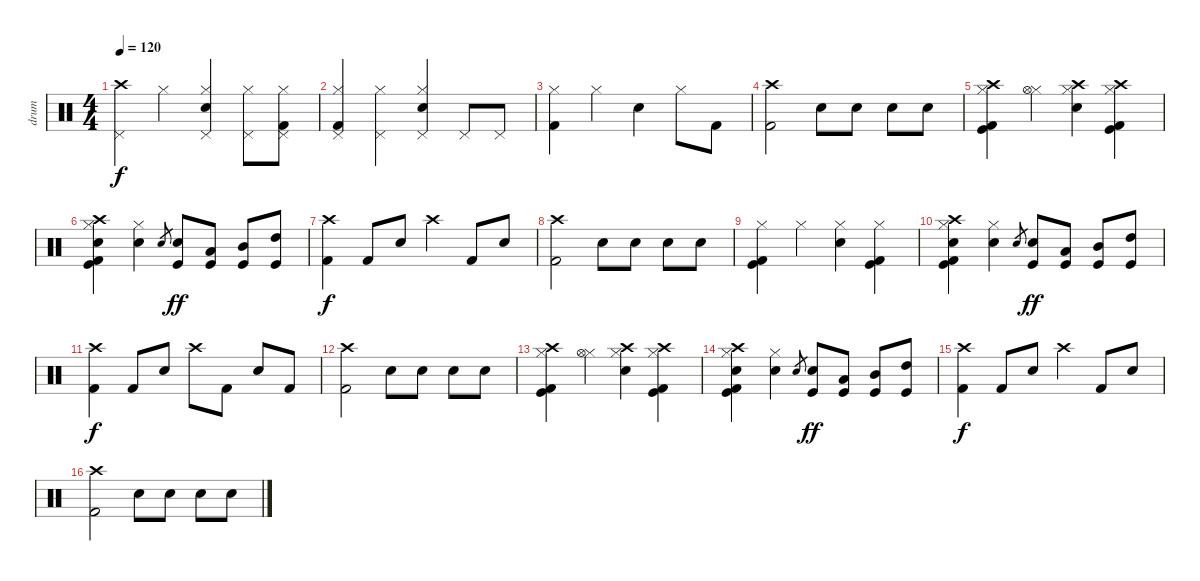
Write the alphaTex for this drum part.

\track ("drum" "drum") {instrument percussion}
\staff {score}
\articulation defaults
\ts (4 4)
\tempo 120
\clef neutral
\ks c
("Crash high (hit)" "Pedal Hi-Hat (hit)").4{dy f} "Hi-Hat (closed)".4 ("Snare (hit) 2" "Pedal Hi-Hat (hit)" "Hi-Hat (closed)").4 ("Hi-Hat (closed)" "Pedal Hi-Hat (hit)").8 ("Kick (hit) 2" "Pedal Hi-Hat (hit)" "Hi-Hat (closed)").8 |
("Kick (hit) 2" "Pedal Hi-Hat (hit)" "Hi-Hat (closed)").4 ("Hi-Hat (closed)" "Pedal Hi-Hat (hit)").4 ("Snare (hit) 2" "Pedal Hi-Hat (hit)" "Hi-Hat (closed)").4 "Pedal Hi-Hat (hit)".8 "Pedal Hi-Hat (hit)".8 |
("Hi-Hat (closed)" "Kick (hit) 2").4 "Hi-Hat (closed)".4 "Snare (hit) 2".4 "Hi-Hat (closed)".8 "Kick (hit) 2".8 |
("Crash high (hit)" "Kick (hit) 2").2 "Electric Snare (hit)".8 "Electric Snare (hit)".8 "Electric Snare (hit)".8 "Electric Snare (hit)".8 |
("Hi-Hat (closed)" "Crash high (hit)" "Kick (hit) 2" "Kick (hit)").4 ("Hi-Hat (closed)" "Hi-Hat (open)").4 ("Hi-Hat (closed)" "Crash high (hit)" "Electric Snare (hit)").4 ("Hi-Hat (closed)" "Crash high (hit)" "Kick (hit) 2" "Kick (hit)").4 |
("Hi-Hat (closed)" "Crash high (hit)" "Electric Snare (hit)" "Kick (hit) 2" "Kick (hit)").4 ("Hi-Hat (closed)" "Electric Snare (hit)").4 "Electric Snare (hit)".8{gr} ("Electric Snare (hit)" "Kick (hit)").8{dy ff} ("Low Tom (hit)" "Kick (hit)").8 ("Mid Tom (hit)" "Kick (hit)").8 ("High Tom (hit)" "Kick (hit)").8 |
("Crash high (hit)" "Kick (hit) 2").4{dy f} "Kick (hit) 2".8 "Snare (hit) 2".8 "Crash high (hit)".4 "Kick (hit) 2".8 "Snare (hit) 2".8 |
("Crash high (hit)" "Kick (hit) 2").2 "Electric Snare (hit)".8 "Electric Snare (hit)".8 "Electric Snare (hit)".8 "Electric Snare (hit)".8 |
("Hi-Hat (closed)" "Kick (hit) 2" "Kick (hit)").4 "Hi-Hat (closed)".4 ("Hi-Hat (closed)" "Electric Snare (hit)").4 ("Hi-Hat (closed)" "Kick (hit) 2" "Kick (hit)").4 |
("Hi-Hat (closed)" "Crash high (hit)" "Electric Snare (hit)" "Kick (hit) 2" "Kick (hit)").4 ("Hi-Hat (closed)" "Electric Snare (hit)").4 "Electric Snare (hit)".8{gr} ("Electric Snare (hit)" "Kick (hit)").8{dy ff} ("Low Tom (hit)" "Kick (hit)").8 ("Mid Tom (hit)" "Kick (hit)").8 ("High Tom (hit)" "Kick (hit)").8 |
("Crash high (hit)" "Kick (hit) 2").4{dy f} "Kick (hit) 2".8 "Snare (hit) 2".8 "Crash high (hit)".8 "Kick (hit) 2".8 "Snare (hit) 2".8 "Kick (hit) 2".8 |
("Crash high (hit)" "Kick (hit) 2").2 "Electric Snare (hit)".8 "Electric Snare (hit)".8 "Electric Snare (hit)".8 "Electric Snare (hit)".8 |
("Hi-Hat (closed)" "Crash high (hit)" "Kick (hit) 2" "Kick (hit)").4 ("Hi-Hat (closed)" "Hi-Hat (open)").4 ("Hi-Hat (closed)" "Crash high (hit)" "Electric Snare (hit)").4 ("Hi-Hat (closed)" "Crash high (hit)" "Kick (hit) 2" "Kick (hit)").4 |
("Hi-Hat (closed)" "Crash high (hit)" "Electric Snare (hit)" "Kick (hit) 2" "Kick (hit)").4 ("Hi-Hat (closed)" "Electric Snare (hit)").4 "Electric Snare (hit)".8{gr} ("Electric Snare (hit)" "Kick (hit)").8{dy ff} ("Low Tom (hit)" "Kick (hit)").8 ("Mid Tom (hit)" "Kick (hit)").8 ("High Tom (hit)" "Kick (hit)").8 |
("Crash high (hit)" "Kick (hit) 2").4{dy f} "Kick (hit) 2".8 "Snare (hit) 2".8 "Crash high (hit)".4 "Kick (hit) 2".8 "Snare (hit) 2".8 |
("Crash high (hit)" "Kick (hit) 2").2 "Electric Snare (hit)".8 "Electric Snare (hit)".8 "Electric Snare (hit)".8 "Electric Snare (hit)".8
